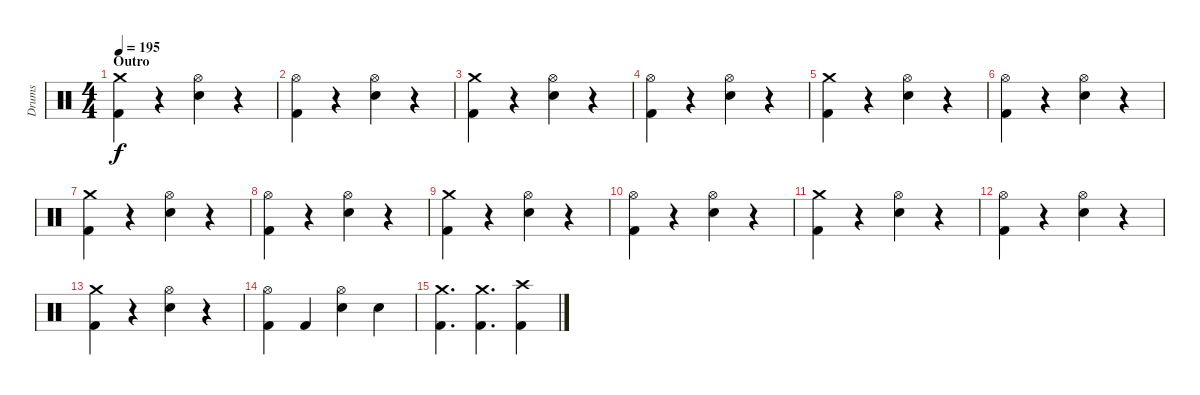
\track ("Drums" "Drums") {instrument percussion}
\staff {score}
\articulation defaults
\ts (4 4)
\section ("" "Outro")
\tempo 195
\clef neutral
\ks c
("Crash medium (hit)" "Kick (hit) 2").4{dy f} r.4 ("Hi-Hat (open)" "Electric Snare (hit)").4 r.4 |
("Hi-Hat (open)" "Kick (hit) 2").4 r.4 ("Hi-Hat (open)" "Electric Snare (hit)").4 r.4 |
("Crash medium (hit)" "Kick (hit) 2").4 r.4 ("Hi-Hat (open)" "Electric Snare (hit)").4 r.4 |
("Hi-Hat (open)" "Kick (hit) 2").4 r.4 ("Hi-Hat (open)" "Electric Snare (hit)").4 r.4 |
("Crash medium (hit)" "Kick (hit) 2").4 r.4 ("Hi-Hat (open)" "Electric Snare (hit)").4 r.4 |
("Hi-Hat (open)" "Kick (hit) 2").4 r.4 ("Hi-Hat (open)" "Electric Snare (hit)").4 r.4 |
("Crash medium (hit)" "Kick (hit) 2").4 r.4 ("Hi-Hat (open)" "Electric Snare (hit)").4 r.4 |
("Hi-Hat (open)" "Kick (hit) 2").4 r.4 ("Hi-Hat (open)" "Electric Snare (hit)").4 r.4 |
("Crash medium (hit)" "Kick (hit) 2").4 r.4 ("Hi-Hat (open)" "Electric Snare (hit)").4 r.4 |
("Hi-Hat (open)" "Kick (hit) 2").4 r.4 ("Hi-Hat (open)" "Electric Snare (hit)").4 r.4 |
("Crash medium (hit)" "Kick (hit) 2").4 r.4 ("Hi-Hat (open)" "Electric Snare (hit)").4 r.4 |
("Hi-Hat (open)" "Kick (hit) 2").4 r.4 ("Hi-Hat (open)" "Electric Snare (hit)").4 r.4 |
("Crash medium (hit)" "Kick (hit) 2").4 r.4 ("Hi-Hat (open)" "Electric Snare (hit)").4 r.4 |
("Hi-Hat (open)" "Kick (hit) 2").4 "Kick (hit) 2".4 ("Hi-Hat (open)" "Electric Snare (hit)").4 "Electric Snare (hit)".4 |
("Crash medium (hit)" "Kick (hit) 2").4{d} ("Crash medium (hit)" "Kick (hit) 2").4{d} ("Crash high (hit)" "Kick (hit) 2").4
